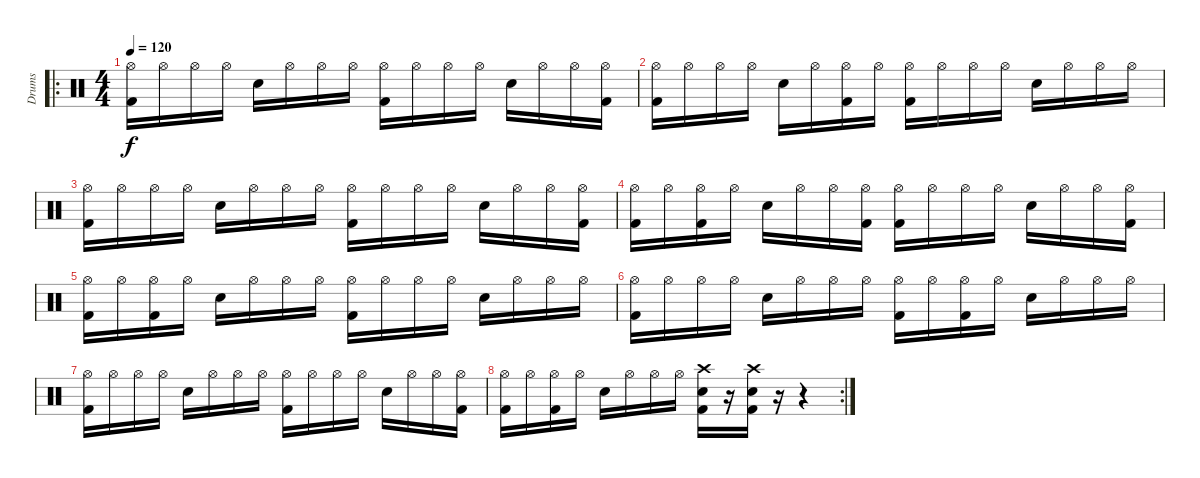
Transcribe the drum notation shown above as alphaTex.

\track ("Drums" "Drums") {instrument percussion}
\staff {score}
\articulation defaults
\ro
\ts (4 4)
\tempo 120
\clef neutral
\ks c
("Hi-Hat (open)" "Kick (hit) 2").16{dy f} "Hi-Hat (open)".16 "Hi-Hat (open)".16 "Hi-Hat (open)".16 "Electric Snare (hit)".16 "Hi-Hat (open)".16 "Hi-Hat (open)".16 "Hi-Hat (open)".16 ("Hi-Hat (open)" "Kick (hit) 2").16 "Hi-Hat (open)".16 "Hi-Hat (open)".16 "Hi-Hat (open)".16 "Electric Snare (hit)".16 "Hi-Hat (open)".16 "Hi-Hat (open)".16 ("Hi-Hat (open)" "Kick (hit) 2").16 |
("Hi-Hat (open)" "Kick (hit) 2").16 "Hi-Hat (open)".16 "Hi-Hat (open)".16 "Hi-Hat (open)".16 "Electric Snare (hit)".16 "Hi-Hat (open)".16 ("Hi-Hat (open)" "Kick (hit) 2").16 "Hi-Hat (open)".16 ("Hi-Hat (open)" "Kick (hit) 2").16 "Hi-Hat (open)".16 "Hi-Hat (open)".16 "Hi-Hat (open)".16 "Electric Snare (hit)".16 "Hi-Hat (open)".16 "Hi-Hat (open)".16 "Hi-Hat (open)".16 |
("Hi-Hat (open)" "Kick (hit) 2").16 "Hi-Hat (open)".16 "Hi-Hat (open)".16 "Hi-Hat (open)".16 "Electric Snare (hit)".16 "Hi-Hat (open)".16 "Hi-Hat (open)".16 "Hi-Hat (open)".16 ("Hi-Hat (open)" "Kick (hit) 2").16 "Hi-Hat (open)".16 "Hi-Hat (open)".16 "Hi-Hat (open)".16 "Electric Snare (hit)".16 "Hi-Hat (open)".16 "Hi-Hat (open)".16 ("Hi-Hat (open)" "Kick (hit) 2").16 |
("Hi-Hat (open)" "Kick (hit) 2").16 "Hi-Hat (open)".16 ("Hi-Hat (open)" "Kick (hit) 2").16 "Hi-Hat (open)".16 "Electric Snare (hit)".16 "Hi-Hat (open)".16 "Hi-Hat (open)".16 ("Hi-Hat (open)" "Kick (hit) 2").16 ("Hi-Hat (open)" "Kick (hit) 2").16 "Hi-Hat (open)".16 "Hi-Hat (open)".16 "Hi-Hat (open)".16 "Electric Snare (hit)".16 "Hi-Hat (open)".16 "Hi-Hat (open)".16 ("Hi-Hat (open)" "Kick (hit) 2").16 |
("Hi-Hat (open)" "Kick (hit) 2").16 "Hi-Hat (open)".16 ("Hi-Hat (open)" "Kick (hit) 2").16 "Hi-Hat (open)".16 "Electric Snare (hit)".16 "Hi-Hat (open)".16 "Hi-Hat (open)".16 "Hi-Hat (open)".16 ("Hi-Hat (open)" "Kick (hit) 2").16 "Hi-Hat (open)".16 "Hi-Hat (open)".16 "Hi-Hat (open)".16 "Electric Snare (hit)".16 "Hi-Hat (open)".16 "Hi-Hat (open)".16 "Hi-Hat (open)".16 |
("Hi-Hat (open)" "Kick (hit) 2").16 "Hi-Hat (open)".16 "Hi-Hat (open)".16 "Hi-Hat (open)".16 "Electric Snare (hit)".16 "Hi-Hat (open)".16 "Hi-Hat (open)".16 "Hi-Hat (open)".16 ("Hi-Hat (open)" "Kick (hit) 2").16 "Hi-Hat (open)".16 ("Hi-Hat (open)" "Kick (hit) 2").16 "Hi-Hat (open)".16 "Electric Snare (hit)".16 "Hi-Hat (open)".16 "Hi-Hat (open)".16 "Hi-Hat (open)".16 |
("Hi-Hat (open)" "Kick (hit) 2").16 "Hi-Hat (open)".16 "Hi-Hat (open)".16 "Hi-Hat (open)".16 "Electric Snare (hit)".16 "Hi-Hat (open)".16 "Hi-Hat (open)".16 "Hi-Hat (open)".16 ("Hi-Hat (open)" "Kick (hit) 2").16 "Hi-Hat (open)".16 "Hi-Hat (open)".16 "Hi-Hat (open)".16 "Electric Snare (hit)".16 "Hi-Hat (open)".16 "Hi-Hat (open)".16 ("Hi-Hat (open)" "Kick (hit) 2").16 |
\rc 2
("Hi-Hat (open)" "Kick (hit) 2").16 "Hi-Hat (open)".16 ("Hi-Hat (open)" "Kick (hit) 2").16 "Hi-Hat (open)".16 "Electric Snare (hit)".16 "Hi-Hat (open)".16 "Hi-Hat (open)".16 "Hi-Hat (open)".16 ("Crash high (hit)" "Electric Snare (hit)" "Kick (hit) 2").16 r.16 ("Crash high (hit)" "Electric Snare (hit)" "Kick (hit) 2").16 r.16 r.4
